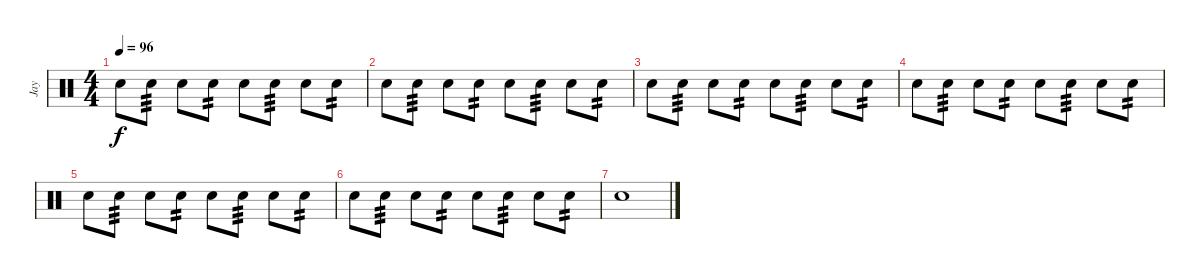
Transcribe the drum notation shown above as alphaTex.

\track ("Jay" "Jay") {instrument percussion}
\staff {score}
\articulation defaults
\ts (4 4)
\tempo 96
\clef neutral
\ks c "Electric Snare (hit)".8{dy f} "Electric Snare (hit)".8{tp 3} "Electric Snare (hit)".8 "Electric Snare (hit)".8{tp 2} "Electric Snare (hit)".8 "Electric Snare (hit)".8{tp 3} "Electric Snare (hit)".8 "Electric Snare (hit)".8{tp 2}
|
"Electric Snare (hit)".8 "Electric Snare (hit)".8{tp 3} "Electric Snare (hit)".8 "Electric Snare (hit)".8{tp 2} "Electric Snare (hit)".8 "Electric Snare (hit)".8{tp 3} "Electric Snare (hit)".8 "Electric Snare (hit)".8{tp 2} |
"Electric Snare (hit)".8 "Electric Snare (hit)".8{tp 3} "Electric Snare (hit)".8 "Electric Snare (hit)".8{tp 2} "Electric Snare (hit)".8 "Electric Snare (hit)".8{tp 3} "Electric Snare (hit)".8 "Electric Snare (hit)".8{tp 2} |
"Electric Snare (hit)".8 "Electric Snare (hit)".8{tp 3} "Electric Snare (hit)".8 "Electric Snare (hit)".8{tp 2} "Electric Snare (hit)".8 "Electric Snare (hit)".8{tp 3} "Electric Snare (hit)".8 "Electric Snare (hit)".8{tp 2} |
"Electric Snare (hit)".8 "Electric Snare (hit)".8{tp 3} "Electric Snare (hit)".8 "Electric Snare (hit)".8{tp 2} "Electric Snare (hit)".8 "Electric Snare (hit)".8{tp 3} "Electric Snare (hit)".8 "Electric Snare (hit)".8{tp 2} |
"Electric Snare (hit)".8 "Electric Snare (hit)".8{tp 3} "Electric Snare (hit)".8 "Electric Snare (hit)".8{tp 2} "Electric Snare (hit)".8 "Electric Snare (hit)".8{tp 3} "Electric Snare (hit)".8 "Electric Snare (hit)".8{tp 2} |
"Electric Snare (hit)".1
